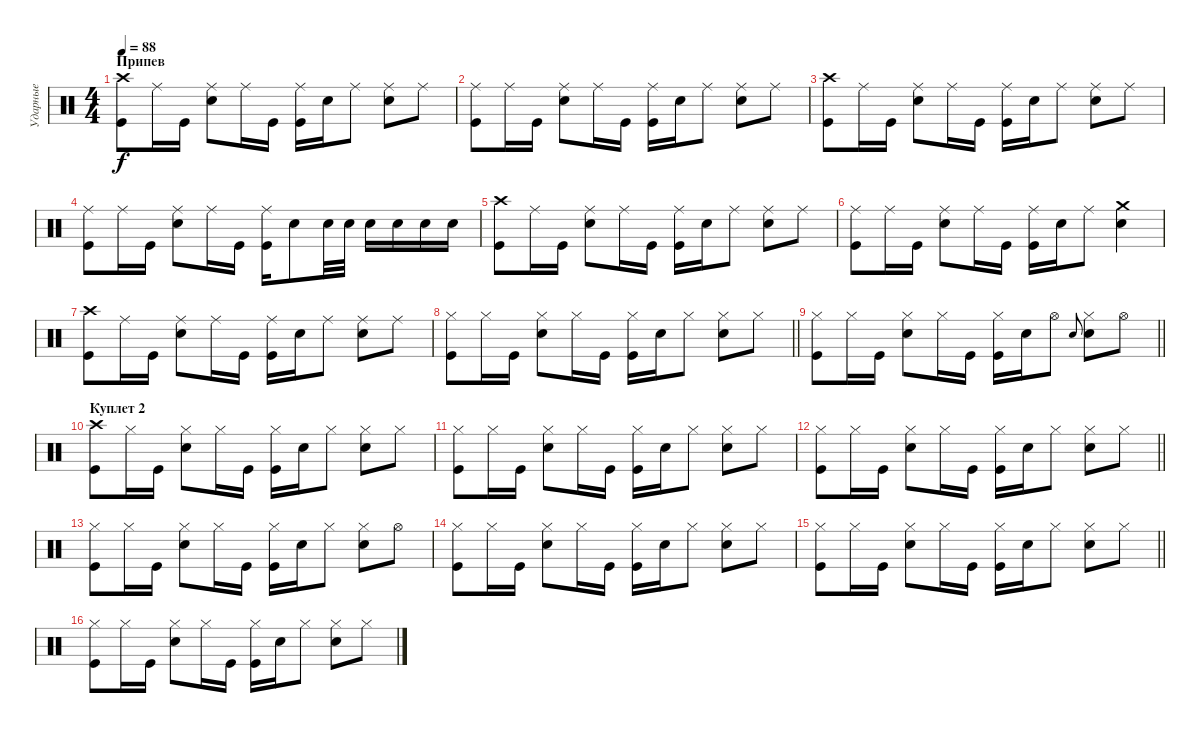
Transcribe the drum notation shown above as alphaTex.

\track ("Ударные" "Ударные") {instrument percussion}
\staff {score}
\articulation defaults
\ts (4 4)
\section ("" "Припев")
\tempo 88
\clef neutral
\ks c
("Crash high (hit)" "Kick (hit)").8{dy f} "Ride (middle)".16 "Kick (hit)".16 ("Ride (middle)" "Snare (hit) 2").8 "Ride (middle)".16 "Kick (hit)".16 ("Ride (middle)" "Kick (hit)").16 "Snare (hit) 2".16 "Ride (middle)".8 ("Ride (middle)" "Snare (hit) 2").8 "Ride (middle)".8 |
("Ride (middle)" "Kick (hit)").8 "Ride (middle)".16 "Kick (hit)".16 ("Ride (middle)" "Snare (hit) 2").8 "Ride (middle)".16 "Kick (hit)".16 ("Ride (middle)" "Kick (hit)").16 "Snare (hit) 2".16 "Ride (middle)".8 ("Ride (middle)" "Snare (hit) 2").8 "Ride (middle)".8 |
("Crash high (hit)" "Kick (hit)").8 "Ride (middle)".16 "Kick (hit)".16 ("Ride (middle)" "Snare (hit) 2").8 "Ride (middle)".16 "Kick (hit)".16 ("Ride (middle)" "Kick (hit)").16 "Snare (hit) 2".16 "Ride (middle)".8 ("Ride (middle)" "Snare (hit) 2").8 "Ride (middle)".8 |
("Ride (middle)" "Kick (hit)").8 "Ride (middle)".16 "Kick (hit)".16 ("Ride (middle)" "Snare (hit) 2").8 "Ride (middle)".16 "Kick (hit)".16 ("Ride (middle)" "Kick (hit)").16 "Snare (hit) 2".8 "Snare (hit) 2".32 "Snare (hit) 2".32 "Snare (hit) 2".16 "Snare (hit) 2".16 "Snare (hit) 2".16 "Snare (hit) 2".16 |
("Crash high (hit)" "Kick (hit)").8 "Ride (middle)".16 "Kick (hit)".16 ("Ride (middle)" "Snare (hit) 2").8 "Ride (middle)".16 "Kick (hit)".16 ("Ride (middle)" "Kick (hit)").16 "Snare (hit) 2".16 "Ride (middle)".8 ("Ride (middle)" "Snare (hit) 2").8 "Ride (middle)".8 |
("Ride (middle)" "Kick (hit)").8 "Ride (middle)".16 "Kick (hit)".16 ("Ride (middle)" "Snare (hit) 2").8 "Ride (middle)".16 "Kick (hit)".16 ("Ride (middle)" "Kick (hit)").16 "Snare (hit) 2".16 "Ride (middle)".8 ("Crash medium (hit)" "Snare (hit) 2").4 |
("Crash high (hit)" "Kick (hit)").8 "Ride (middle)".16 "Kick (hit)".16 ("Ride (middle)" "Snare (hit) 2").8 "Ride (middle)".16 "Kick (hit)".16 ("Ride (middle)" "Kick (hit)").16 "Snare (hit) 2".16 "Ride (middle)".8 ("Ride (middle)" "Snare (hit) 2").8 "Ride (middle)".8 |
\barLineRight lightlight
("Hi-Hat (closed)" "Kick (hit)").8 "Hi-Hat (closed)".16 "Kick (hit)".16 ("Hi-Hat (closed)" "Snare (hit) 2").8 "Hi-Hat (closed)".16 "Kick (hit)".16 ("Hi-Hat (closed)" "Kick (hit)").16 "Snare (hit) 2".16 "Hi-Hat (closed)".8 ("Hi-Hat (closed)" "Snare (hit) 2").8 "Hi-Hat (closed)".8 |
\barLineRight lightlight
("Hi-Hat (closed)" "Kick (hit)").8 "Hi-Hat (closed)".16 "Kick (hit)".16 ("Hi-Hat (closed)" "Snare (hit) 2").8 "Hi-Hat (closed)".16 "Kick (hit)".16 ("Hi-Hat (closed)" "Kick (hit)").16 "Snare (hit) 2".16 "Hi-Hat (open)".8 "Snare (hit) 2".8{gr onbeat} ("Hi-Hat (closed)" "Snare (hit) 2").8 "Hi-Hat (open)".8 |
\section ("" "Куплет 2")
("Crash high (hit)" "Kick (hit)").8 "Hi-Hat (closed)".16 "Kick (hit)".16 ("Hi-Hat (closed)" "Snare (hit) 2").8 "Hi-Hat (closed)".16 "Kick (hit)".16 ("Hi-Hat (closed)" "Kick (hit)").16 "Snare (hit) 2".16 "Hi-Hat (closed)".8 ("Hi-Hat (closed)" "Snare (hit) 2").8 "Hi-Hat (closed)".8 |
("Hi-Hat (closed)" "Kick (hit)").8 "Hi-Hat (closed)".16 "Kick (hit)".16 ("Hi-Hat (closed)" "Snare (hit) 2").8 "Hi-Hat (closed)".16 "Kick (hit)".16 ("Hi-Hat (closed)" "Kick (hit)").16 "Snare (hit) 2".16 "Hi-Hat (closed)".8 ("Hi-Hat (closed)" "Snare (hit) 2").8 "Hi-Hat (closed)".8 |
\barLineRight lightlight
("Hi-Hat (closed)" "Kick (hit)").8 "Hi-Hat (closed)".16 "Kick (hit)".16 ("Hi-Hat (closed)" "Snare (hit) 2").8 "Hi-Hat (closed)".16 "Kick (hit)".16 ("Hi-Hat (closed)" "Kick (hit)").16 "Snare (hit) 2".16 "Hi-Hat (closed)".8 ("Hi-Hat (closed)" "Snare (hit) 2").8 "Hi-Hat (closed)".8 |
("Hi-Hat (closed)" "Kick (hit)").8 "Hi-Hat (closed)".16 "Kick (hit)".16 ("Hi-Hat (closed)" "Snare (hit) 2").8 "Hi-Hat (closed)".16 "Kick (hit)".16 ("Hi-Hat (closed)" "Kick (hit)").16 "Snare (hit) 2".16 "Hi-Hat (closed)".8 ("Hi-Hat (closed)" "Snare (hit) 2").8 "Hi-Hat (open)".8 |
("Hi-Hat (closed)" "Kick (hit)").8 "Hi-Hat (closed)".16 "Kick (hit)".16 ("Hi-Hat (closed)" "Snare (hit) 2").8 "Hi-Hat (closed)".16 "Kick (hit)".16 ("Hi-Hat (closed)" "Kick (hit)").16 "Snare (hit) 2".16 "Hi-Hat (closed)".8 ("Hi-Hat (closed)" "Snare (hit) 2").8 "Hi-Hat (closed)".8 |
\barLineRight lightlight
("Hi-Hat (closed)" "Kick (hit)").8 "Hi-Hat (closed)".16 "Kick (hit)".16 ("Hi-Hat (closed)" "Snare (hit) 2").8 "Hi-Hat (closed)".16 "Kick (hit)".16 ("Hi-Hat (closed)" "Kick (hit)").16 "Snare (hit) 2".16 "Hi-Hat (closed)".8 ("Hi-Hat (closed)" "Snare (hit) 2").8 "Hi-Hat (closed)".8 |
("Hi-Hat (closed)" "Kick (hit)").8 "Hi-Hat (closed)".16 "Kick (hit)".16 ("Hi-Hat (closed)" "Snare (hit) 2").8 "Hi-Hat (closed)".16 "Kick (hit)".16 ("Hi-Hat (closed)" "Kick (hit)").16 "Snare (hit) 2".16 "Hi-Hat (closed)".8 ("Hi-Hat (closed)" "Snare (hit) 2").8 "Hi-Hat (closed)".8
